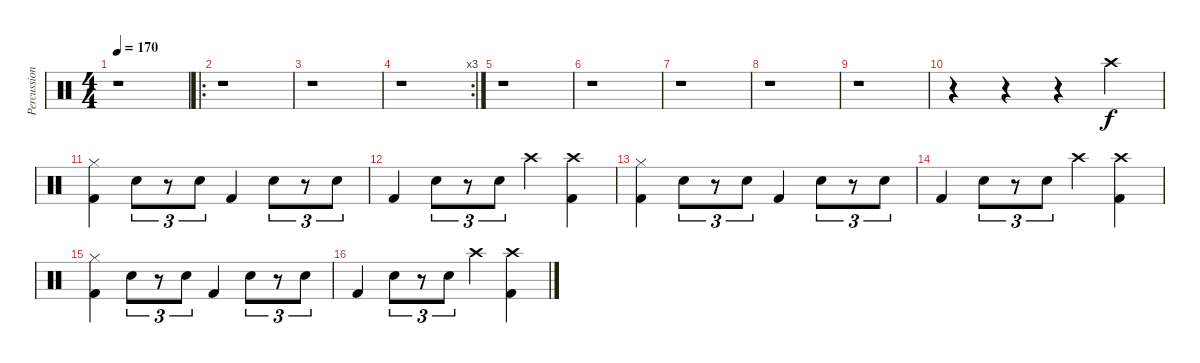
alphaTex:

\track ("Percussion" "Percussion") {instrument percussion}
\staff {score}
\articulation defaults
\ts (4 4)
\tempo 170
\clef neutral
\ks c
r.1{dy f} |
\ro
r.1 |
r.1 |
\rc 3
r.1 |
r.1 |
r.1 |
r.1 |
r.1 |
r.1 |
r.4 r.4 r.4 "Crash high (hit)".4 |
("Hi-Hat (closed)" "Kick (hit) 2").4 "Snare (hit) 2".8{tu (3 2)} r.8{tu (3 2)} "Snare (hit) 2".8{tu (3 2)} "Kick (hit) 2".4 "Snare (hit) 2".8{tu (3 2)} r.8{tu (3 2)} "Snare (hit) 2".8{tu (3 2)} |
"Kick (hit) 2".4 "Snare (hit) 2".8{tu (3 2)} r.8{tu (3 2)} "Snare (hit) 2".8{tu (3 2)} "Crash high (hit)".4 ("Crash high (hit)" "Kick (hit) 2").4 |
("Hi-Hat (closed)" "Kick (hit) 2").4 "Snare (hit) 2".8{tu (3 2)} r.8{tu (3 2)} "Snare (hit) 2".8{tu (3 2)} "Kick (hit) 2".4 "Snare (hit) 2".8{tu (3 2)} r.8{tu (3 2)} "Snare (hit) 2".8{tu (3 2)} |
"Kick (hit) 2".4 "Snare (hit) 2".8{tu (3 2)} r.8{tu (3 2)} "Snare (hit) 2".8{tu (3 2)} "Crash high (hit)".4 ("Crash high (hit)" "Kick (hit) 2").4 |
("Hi-Hat (closed)" "Kick (hit) 2").4 "Snare (hit) 2".8{tu (3 2)} r.8{tu (3 2)} "Snare (hit) 2".8{tu (3 2)} "Kick (hit) 2".4 "Snare (hit) 2".8{tu (3 2)} r.8{tu (3 2)} "Snare (hit) 2".8{tu (3 2)} |
"Kick (hit) 2".4 "Snare (hit) 2".8{tu (3 2)} r.8{tu (3 2)} "Snare (hit) 2".8{tu (3 2)} "Crash high (hit)".4 ("Crash high (hit)" "Kick (hit) 2").4
